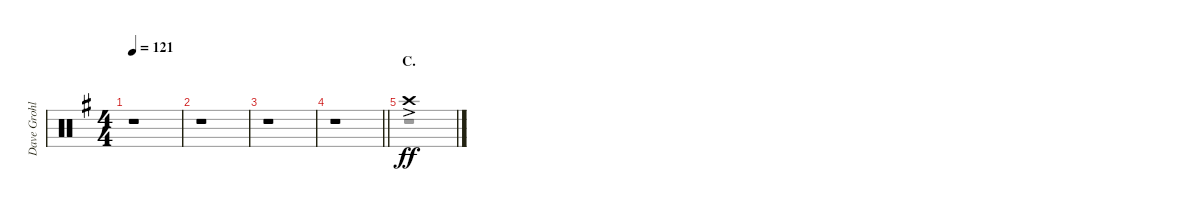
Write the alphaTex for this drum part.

\track ("Dave Grohl" "Dave Grohl") {instrument percussion}
\staff {score}
\articulation defaults
\voice
\ts (4 4)
\tempo 121
\clef neutral
\ks eminor
r.1{dy ff} |
r.1 |
r.1 |
\barLineRight lightlight
r.1 |
\section ("" "C.")
"Crash high (hit)"{ac}.1
\voice
\clef neutral
\ottava regular
\simile none
\ks eminor
r.1{dy f} |
r.1 |
r.1 |
\barLineRight lightlight
r.1 |
r.1
